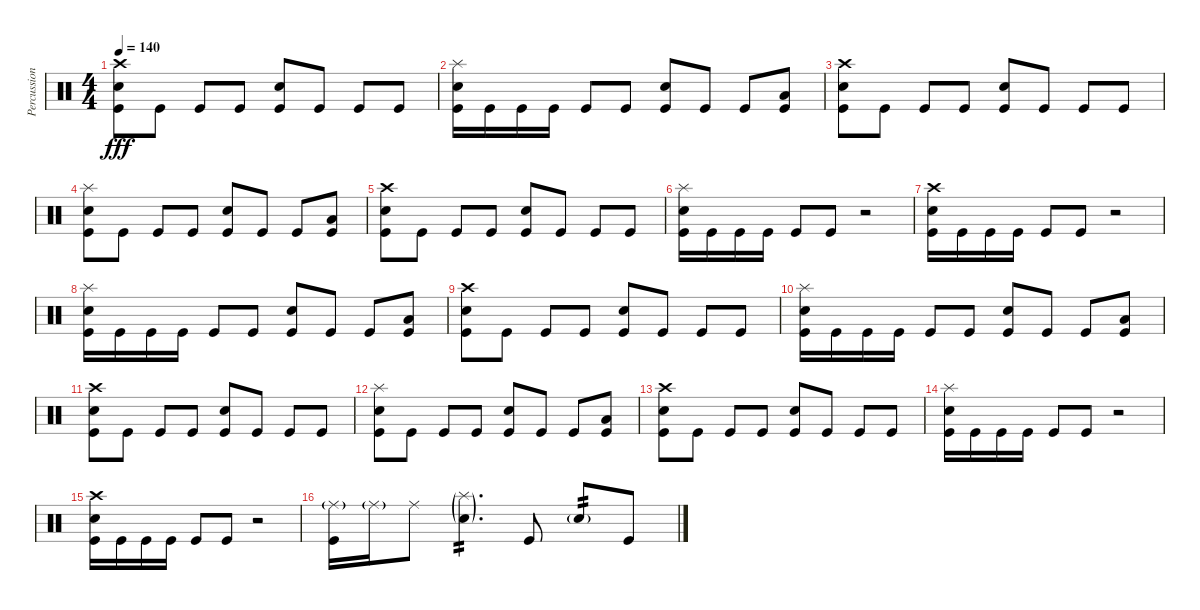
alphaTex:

\track ("Percussion" "Percussion") {instrument percussion}
\staff {score}
\articulation defaults
\ts (4 4)
\tempo 140
\clef neutral
\ks c
("Crash high (hit)" "Snare (hit) 2" "Kick (hit)").8{dy fff} "Kick (hit)".8 "Kick (hit)".8 "Kick (hit)".8 ("Snare (hit) 2" "Kick (hit)").8 "Kick (hit)".8 "Kick (hit)".8 "Kick (hit)".8 |
("Splash (hit)" "Snare (hit) 2" "Kick (hit)").16 "Kick (hit)".16 "Kick (hit)".16 "Kick (hit)".16 "Kick (hit)".8 "Kick (hit)".8 ("Snare (hit) 2" "Kick (hit)").8 "Kick (hit)".8 "Kick (hit)".8 ("Low Floor Tom (hit)" "Kick (hit)").8 |
("Crash high (hit)" "Snare (hit) 2" "Kick (hit)").8 "Kick (hit)".8 "Kick (hit)".8 "Kick (hit)".8 ("Snare (hit) 2" "Kick (hit)").8 "Kick (hit)".8 "Kick (hit)".8 "Kick (hit)".8 |
("Splash (hit)" "Snare (hit) 2" "Kick (hit)").8 "Kick (hit)".8 "Kick (hit)".8 "Kick (hit)".8 ("Snare (hit) 2" "Kick (hit)").8 "Kick (hit)".8 "Kick (hit)".8 ("Low Floor Tom (hit)" "Kick (hit)").8 |
("Crash high (hit)" "Snare (hit) 2" "Kick (hit)").8 "Kick (hit)".8 "Kick (hit)".8 "Kick (hit)".8 ("Snare (hit) 2" "Kick (hit)").8 "Kick (hit)".8 "Kick (hit)".8 "Kick (hit)".8 |
("Splash (hit)" "Snare (hit) 2" "Kick (hit)").16 "Kick (hit)".16 "Kick (hit)".16 "Kick (hit)".16 "Kick (hit)".8 "Kick (hit)".8 r.2 |
("Crash high (hit)" "Snare (hit) 2" "Kick (hit)").16 "Kick (hit)".16 "Kick (hit)".16 "Kick (hit)".16 "Kick (hit)".8 "Kick (hit)".8 r.2 |
("Splash (hit)" "Snare (hit) 2" "Kick (hit)").16 "Kick (hit)".16 "Kick (hit)".16 "Kick (hit)".16 "Kick (hit)".8 "Kick (hit)".8 ("Snare (hit) 2" "Kick (hit)").8 "Kick (hit)".8 "Kick (hit)".8 ("Low Floor Tom (hit)" "Kick (hit)").8 |
("Crash high (hit)" "Snare (hit) 2" "Kick (hit)").8 "Kick (hit)".8 "Kick (hit)".8 "Kick (hit)".8 ("Snare (hit) 2" "Kick (hit)").8 "Kick (hit)".8 "Kick (hit)".8 "Kick (hit)".8 |
("Splash (hit)" "Snare (hit) 2" "Kick (hit)").16 "Kick (hit)".16 "Kick (hit)".16 "Kick (hit)".16 "Kick (hit)".8 "Kick (hit)".8 ("Snare (hit) 2" "Kick (hit)").8 "Kick (hit)".8 "Kick (hit)".8 ("Low Floor Tom (hit)" "Kick (hit)").8 |
("Crash high (hit)" "Snare (hit) 2" "Kick (hit)").8 "Kick (hit)".8 "Kick (hit)".8 "Kick (hit)".8 ("Snare (hit) 2" "Kick (hit)").8 "Kick (hit)".8 "Kick (hit)".8 "Kick (hit)".8 |
("Splash (hit)" "Snare (hit) 2" "Kick (hit)").8 "Kick (hit)".8 "Kick (hit)".8 "Kick (hit)".8 ("Snare (hit) 2" "Kick (hit)").8 "Kick (hit)".8 "Kick (hit)".8 ("Low Floor Tom (hit)" "Kick (hit)").8 |
("Crash high (hit)" "Snare (hit) 2" "Kick (hit)").8 "Kick (hit)".8 "Kick (hit)".8 "Kick (hit)".8 ("Snare (hit) 2" "Kick (hit)").8 "Kick (hit)".8 "Kick (hit)".8 "Kick (hit)".8 |
("Splash (hit)" "Snare (hit) 2" "Kick (hit)").16 "Kick (hit)".16 "Kick (hit)".16 "Kick (hit)".16 "Kick (hit)".8 "Kick (hit)".8 r.2 |
("Crash high (hit)" "Snare (hit) 2" "Kick (hit)").16 "Kick (hit)".16 "Kick (hit)".16 "Kick (hit)".16 "Kick (hit)".8 "Kick (hit)".8 r.2 |
("Ride (middle)"{g} "Kick (hit)").16 "Ride (middle)"{g}.16 "Ride (middle)".8 ("Splash (hit)"{g} "Snare (hit) 2"{g}).4{d tp 2} "Kick (hit)".8 "Snare (hit) 2"{g}.8{tp 2} "Kick (hit)".8
